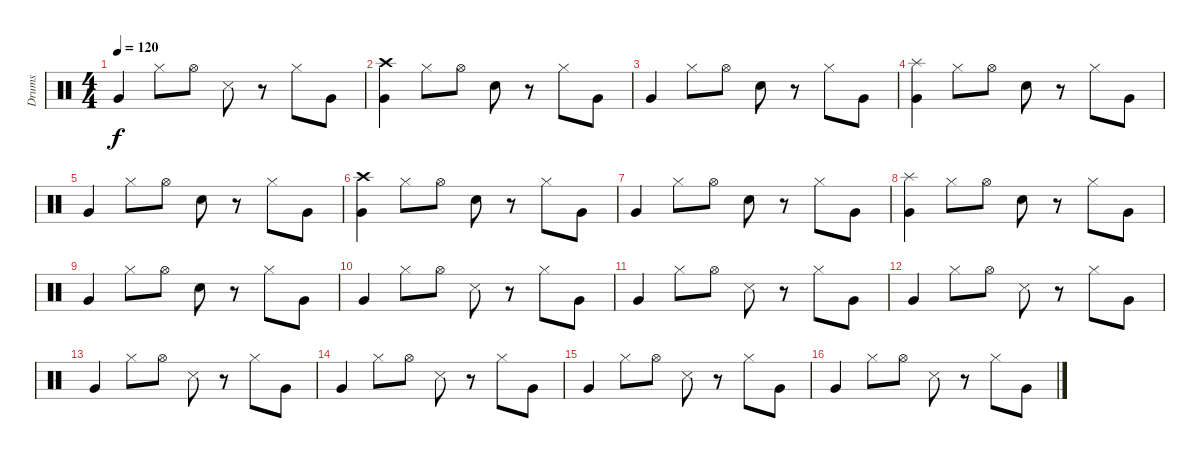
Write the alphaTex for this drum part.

\track ("Drums" "Drums") {instrument percussion}
\staff {score}
\articulation defaults
\ts (4 4)
\tempo 120
\clef neutral
\ks c "Very Low Tom (hit)".4{dy f} "Hi-Hat (closed)".8 "Hi-Hat (open)".8 "Snare (side stick) 3".8
r.8 "Hi-Hat (closed)".8 "Very Low Tom (hit)".8 |
("Crash high (hit)" "Very Low Tom (hit)").4 "Hi-Hat (closed)".8 "Hi-Hat (open)".8 "Electric Snare (hit)".8 r.8 "Hi-Hat (closed)".8 "Very Low Tom (hit)".8 |
"Very Low Tom (hit)".4 "Hi-Hat (closed)".8 "Hi-Hat (open)".8 "Electric Snare (hit)".8 r.8 "Hi-Hat (closed)".8 "Very Low Tom (hit)".8 |
("Splash (hit)" "Very Low Tom (hit)").4 "Hi-Hat (closed)".8 "Hi-Hat (open)".8 "Electric Snare (hit)".8 r.8 "Hi-Hat (closed)".8 "Very Low Tom (hit)".8 |
"Very Low Tom (hit)".4 "Hi-Hat (closed)".8 "Hi-Hat (open)".8 "Electric Snare (hit)".8 r.8 "Hi-Hat (closed)".8 "Very Low Tom (hit)".8 |
("Crash high (hit)" "Very Low Tom (hit)").4 "Hi-Hat (closed)".8 "Hi-Hat (open)".8 "Electric Snare (hit)".8 r.8 "Hi-Hat (closed)".8 "Very Low Tom (hit)".8 |
"Very Low Tom (hit)".4 "Hi-Hat (closed)".8 "Hi-Hat (open)".8 "Electric Snare (hit)".8 r.8 "Hi-Hat (closed)".8 "Very Low Tom (hit)".8 |
("Splash (hit)" "Very Low Tom (hit)").4 "Hi-Hat (closed)".8 "Hi-Hat (open)".8 "Electric Snare (hit)".8 r.8 "Hi-Hat (closed)".8 "Very Low Tom (hit)".8 |
"Very Low Tom (hit)".4 "Hi-Hat (closed)".8 "Hi-Hat (open)".8 "Electric Snare (hit)".8 r.8 "Hi-Hat (closed)".8 "Very Low Tom (hit)".8 |
"Very Low Tom (hit)".4 "Hi-Hat (closed)".8 "Hi-Hat (open)".8 "Snare (side stick) 3".8 r.8 "Hi-Hat (closed)".8 "Very Low Tom (hit)".8 |
"Very Low Tom (hit)".4 "Hi-Hat (closed)".8 "Hi-Hat (open)".8 "Snare (side stick) 3".8 r.8 "Hi-Hat (closed)".8 "Very Low Tom (hit)".8 |
"Very Low Tom (hit)".4 "Hi-Hat (closed)".8 "Hi-Hat (open)".8 "Snare (side stick) 3".8 r.8 "Hi-Hat (closed)".8 "Very Low Tom (hit)".8 |
"Very Low Tom (hit)".4 "Hi-Hat (closed)".8 "Hi-Hat (open)".8 "Snare (side stick) 3".8 r.8 "Hi-Hat (closed)".8 "Very Low Tom (hit)".8 |
"Very Low Tom (hit)".4 "Hi-Hat (closed)".8 "Hi-Hat (open)".8 "Snare (side stick) 3".8 r.8 "Hi-Hat (closed)".8 "Very Low Tom (hit)".8 |
"Very Low Tom (hit)".4 "Hi-Hat (closed)".8 "Hi-Hat (open)".8 "Snare (side stick) 3".8 r.8 "Hi-Hat (closed)".8 "Very Low Tom (hit)".8 |
"Very Low Tom (hit)".4 "Hi-Hat (closed)".8 "Hi-Hat (open)".8 "Snare (side stick) 3".8 r.8 "Hi-Hat (closed)".8 "Very Low Tom (hit)".8
